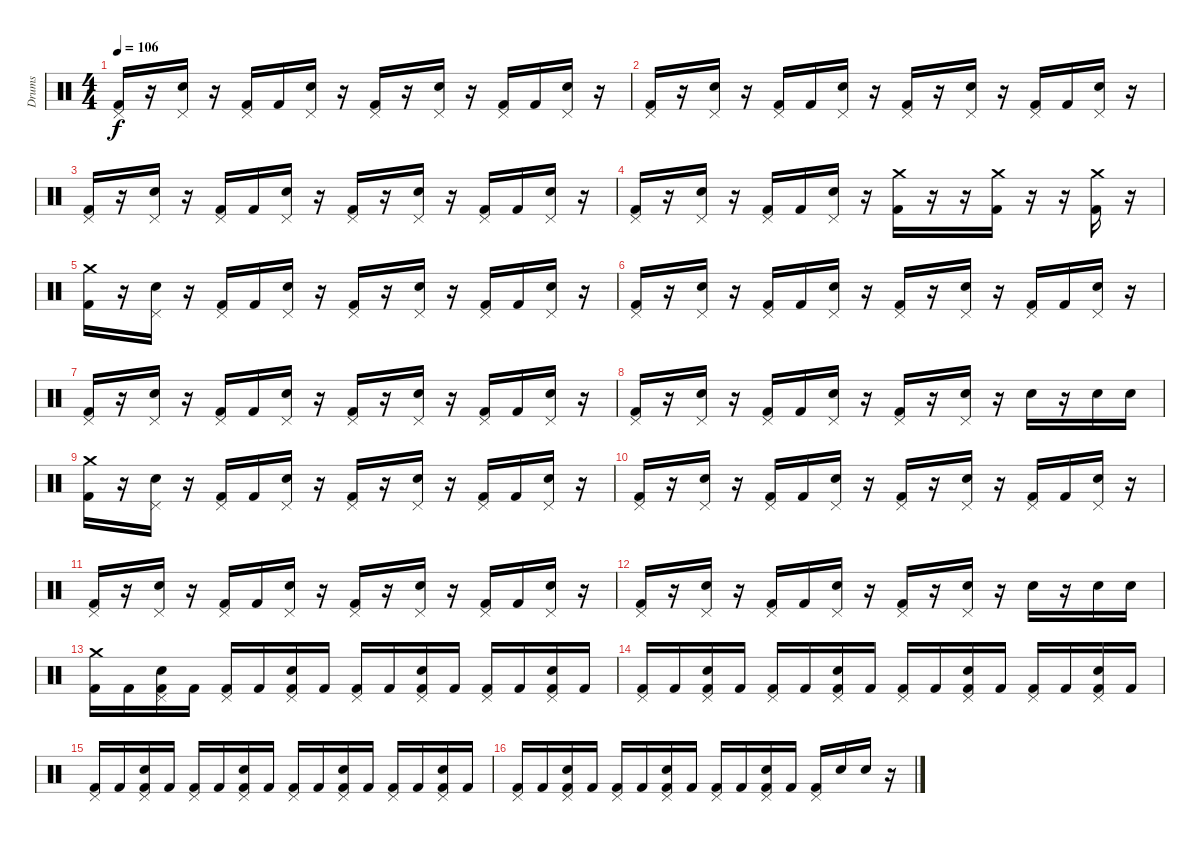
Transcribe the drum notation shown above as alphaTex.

\track ("Drums" "Drums") {instrument percussion}
\staff {score}
\articulation defaults
\ts (4 4)
\tempo 106
\clef neutral
\ks c
("Kick (hit) 2" "Pedal Hi-Hat (hit)").16{dy f} r.16 ("Pedal Hi-Hat (hit)" "Electric Snare (hit)").16 r.16 ("Kick (hit) 2" "Pedal Hi-Hat (hit)").16 "Kick (hit) 2".16 ("Pedal Hi-Hat (hit)" "Electric Snare (hit)").16 r.16 ("Kick (hit) 2" "Pedal Hi-Hat (hit)").16 r.16 ("Pedal Hi-Hat (hit)" "Electric Snare (hit)").16 r.16 ("Kick (hit) 2" "Pedal Hi-Hat (hit)").16 "Kick (hit) 2".16 ("Pedal Hi-Hat (hit)" "Electric Snare (hit)").16 r.16 |
("Kick (hit) 2" "Pedal Hi-Hat (hit)").16 r.16 ("Pedal Hi-Hat (hit)" "Electric Snare (hit)").16 r.16 ("Kick (hit) 2" "Pedal Hi-Hat (hit)").16 "Kick (hit) 2".16 ("Pedal Hi-Hat (hit)" "Electric Snare (hit)").16 r.16 ("Kick (hit) 2" "Pedal Hi-Hat (hit)").16 r.16 ("Pedal Hi-Hat (hit)" "Electric Snare (hit)").16 r.16 ("Kick (hit) 2" "Pedal Hi-Hat (hit)").16 "Kick (hit) 2".16 ("Pedal Hi-Hat (hit)" "Electric Snare (hit)").16 r.16 |
("Kick (hit) 2" "Pedal Hi-Hat (hit)").16 r.16 ("Pedal Hi-Hat (hit)" "Electric Snare (hit)").16 r.16 ("Kick (hit) 2" "Pedal Hi-Hat (hit)").16 "Kick (hit) 2".16 ("Pedal Hi-Hat (hit)" "Electric Snare (hit)").16 r.16 ("Kick (hit) 2" "Pedal Hi-Hat (hit)").16 r.16 ("Pedal Hi-Hat (hit)" "Electric Snare (hit)").16 r.16 ("Kick (hit) 2" "Pedal Hi-Hat (hit)").16 "Kick (hit) 2".16 ("Pedal Hi-Hat (hit)" "Electric Snare (hit)").16 r.16 |
("Kick (hit) 2" "Pedal Hi-Hat (hit)").16 r.16 ("Pedal Hi-Hat (hit)" "Electric Snare (hit)").16 r.16 ("Kick (hit) 2" "Pedal Hi-Hat (hit)").16 "Kick (hit) 2".16 ("Pedal Hi-Hat (hit)" "Electric Snare (hit)").16 r.16 ("Kick (hit) 2" "Crash medium (hit)").16 r.16 r.16 ("Kick (hit) 2" "Crash medium (hit)").16 r.16 r.16 ("Kick (hit) 2" "Crash medium (hit)").16 r.16 |
("Kick (hit) 2" "Crash medium (hit)").16 r.16 ("Pedal Hi-Hat (hit)" "Electric Snare (hit)").16 r.16 ("Kick (hit) 2" "Pedal Hi-Hat (hit)").16 "Kick (hit) 2".16 ("Pedal Hi-Hat (hit)" "Electric Snare (hit)").16 r.16 ("Kick (hit) 2" "Pedal Hi-Hat (hit)").16 r.16 ("Pedal Hi-Hat (hit)" "Electric Snare (hit)").16 r.16 ("Kick (hit) 2" "Pedal Hi-Hat (hit)").16 "Kick (hit) 2".16 ("Pedal Hi-Hat (hit)" "Electric Snare (hit)").16 r.16 |
("Kick (hit) 2" "Pedal Hi-Hat (hit)").16 r.16 ("Pedal Hi-Hat (hit)" "Electric Snare (hit)").16 r.16 ("Kick (hit) 2" "Pedal Hi-Hat (hit)").16 "Kick (hit) 2".16 ("Pedal Hi-Hat (hit)" "Electric Snare (hit)").16 r.16 ("Kick (hit) 2" "Pedal Hi-Hat (hit)").16 r.16 ("Pedal Hi-Hat (hit)" "Electric Snare (hit)").16 r.16 ("Kick (hit) 2" "Pedal Hi-Hat (hit)").16 "Kick (hit) 2".16 ("Pedal Hi-Hat (hit)" "Electric Snare (hit)").16 r.16 |
("Kick (hit) 2" "Pedal Hi-Hat (hit)").16 r.16 ("Pedal Hi-Hat (hit)" "Electric Snare (hit)").16 r.16 ("Kick (hit) 2" "Pedal Hi-Hat (hit)").16 "Kick (hit) 2".16 ("Pedal Hi-Hat (hit)" "Electric Snare (hit)").16 r.16 ("Kick (hit) 2" "Pedal Hi-Hat (hit)").16 r.16 ("Pedal Hi-Hat (hit)" "Electric Snare (hit)").16 r.16 ("Kick (hit) 2" "Pedal Hi-Hat (hit)").16 "Kick (hit) 2".16 ("Pedal Hi-Hat (hit)" "Electric Snare (hit)").16 r.16 |
("Kick (hit) 2" "Pedal Hi-Hat (hit)").16 r.16 ("Pedal Hi-Hat (hit)" "Electric Snare (hit)").16 r.16 ("Kick (hit) 2" "Pedal Hi-Hat (hit)").16 "Kick (hit) 2".16 ("Pedal Hi-Hat (hit)" "Electric Snare (hit)").16 r.16 ("Kick (hit) 2" "Pedal Hi-Hat (hit)").16 r.16 ("Pedal Hi-Hat (hit)" "Electric Snare (hit)").16 r.16 "Electric Snare (hit)".16 r.16 "Electric Snare (hit)".16 "Electric Snare (hit)".16 |
("Kick (hit) 2" "Crash medium (hit)").16 r.16 ("Pedal Hi-Hat (hit)" "Electric Snare (hit)").16 r.16 ("Kick (hit) 2" "Pedal Hi-Hat (hit)").16 "Kick (hit) 2".16 ("Pedal Hi-Hat (hit)" "Electric Snare (hit)").16 r.16 ("Kick (hit) 2" "Pedal Hi-Hat (hit)").16 r.16 ("Pedal Hi-Hat (hit)" "Electric Snare (hit)").16 r.16 ("Kick (hit) 2" "Pedal Hi-Hat (hit)").16 "Kick (hit) 2".16 ("Pedal Hi-Hat (hit)" "Electric Snare (hit)").16 r.16 |
("Kick (hit) 2" "Pedal Hi-Hat (hit)").16 r.16 ("Pedal Hi-Hat (hit)" "Electric Snare (hit)").16 r.16 ("Kick (hit) 2" "Pedal Hi-Hat (hit)").16 "Kick (hit) 2".16 ("Pedal Hi-Hat (hit)" "Electric Snare (hit)").16 r.16 ("Kick (hit) 2" "Pedal Hi-Hat (hit)").16 r.16 ("Pedal Hi-Hat (hit)" "Electric Snare (hit)").16 r.16 ("Kick (hit) 2" "Pedal Hi-Hat (hit)").16 "Kick (hit) 2".16 ("Pedal Hi-Hat (hit)" "Electric Snare (hit)").16 r.16 |
("Kick (hit) 2" "Pedal Hi-Hat (hit)").16 r.16 ("Pedal Hi-Hat (hit)" "Electric Snare (hit)").16 r.16 ("Kick (hit) 2" "Pedal Hi-Hat (hit)").16 "Kick (hit) 2".16 ("Pedal Hi-Hat (hit)" "Electric Snare (hit)").16 r.16 ("Kick (hit) 2" "Pedal Hi-Hat (hit)").16 r.16 ("Pedal Hi-Hat (hit)" "Electric Snare (hit)").16 r.16 ("Kick (hit) 2" "Pedal Hi-Hat (hit)").16 "Kick (hit) 2".16 ("Pedal Hi-Hat (hit)" "Electric Snare (hit)").16 r.16 |
("Kick (hit) 2" "Pedal Hi-Hat (hit)").16 r.16 ("Pedal Hi-Hat (hit)" "Electric Snare (hit)").16 r.16 ("Kick (hit) 2" "Pedal Hi-Hat (hit)").16 "Kick (hit) 2".16 ("Pedal Hi-Hat (hit)" "Electric Snare (hit)").16 r.16 ("Kick (hit) 2" "Pedal Hi-Hat (hit)").16 r.16 ("Pedal Hi-Hat (hit)" "Electric Snare (hit)").16 r.16 "Electric Snare (hit)".16 r.16 "Electric Snare (hit)".16 "Electric Snare (hit)".16 |
("Kick (hit) 2" "Crash medium (hit)").16 "Kick (hit) 2".16 ("Kick (hit) 2" "Pedal Hi-Hat (hit)" "Electric Snare (hit)").16 "Kick (hit) 2".16 ("Kick (hit) 2" "Pedal Hi-Hat (hit)").16 "Kick (hit) 2".16 ("Kick (hit) 2" "Pedal Hi-Hat (hit)" "Electric Snare (hit)").16 "Kick (hit) 2".16 ("Kick (hit) 2" "Pedal Hi-Hat (hit)").16 "Kick (hit) 2".16 ("Kick (hit) 2" "Pedal Hi-Hat (hit)" "Electric Snare (hit)").16 "Kick (hit) 2".16 ("Kick (hit) 2" "Pedal Hi-Hat (hit)").16 "Kick (hit) 2".16 ("Kick (hit) 2" "Pedal Hi-Hat (hit)" "Electric Snare (hit)").16 "Kick (hit) 2".16 |
("Kick (hit) 2" "Pedal Hi-Hat (hit)").16 "Kick (hit) 2".16 ("Kick (hit) 2" "Pedal Hi-Hat (hit)" "Electric Snare (hit)").16 "Kick (hit) 2".16 ("Kick (hit) 2" "Pedal Hi-Hat (hit)").16 "Kick (hit) 2".16 ("Kick (hit) 2" "Pedal Hi-Hat (hit)" "Electric Snare (hit)").16 "Kick (hit) 2".16 ("Kick (hit) 2" "Pedal Hi-Hat (hit)").16 "Kick (hit) 2".16 ("Kick (hit) 2" "Pedal Hi-Hat (hit)" "Electric Snare (hit)").16 "Kick (hit) 2".16 ("Kick (hit) 2" "Pedal Hi-Hat (hit)").16 "Kick (hit) 2".16 ("Kick (hit) 2" "Pedal Hi-Hat (hit)" "Electric Snare (hit)").16 "Kick (hit) 2".16 |
("Kick (hit) 2" "Pedal Hi-Hat (hit)").16 "Kick (hit) 2".16 ("Kick (hit) 2" "Pedal Hi-Hat (hit)" "Electric Snare (hit)").16 "Kick (hit) 2".16 ("Kick (hit) 2" "Pedal Hi-Hat (hit)").16 "Kick (hit) 2".16 ("Kick (hit) 2" "Pedal Hi-Hat (hit)" "Electric Snare (hit)").16 "Kick (hit) 2".16 ("Kick (hit) 2" "Pedal Hi-Hat (hit)").16 "Kick (hit) 2".16 ("Kick (hit) 2" "Pedal Hi-Hat (hit)" "Electric Snare (hit)").16 "Kick (hit) 2".16 ("Kick (hit) 2" "Pedal Hi-Hat (hit)").16 "Kick (hit) 2".16 ("Kick (hit) 2" "Pedal Hi-Hat (hit)" "Electric Snare (hit)").16 "Kick (hit) 2".16 |
("Kick (hit) 2" "Pedal Hi-Hat (hit)").16 "Kick (hit) 2".16 ("Kick (hit) 2" "Pedal Hi-Hat (hit)" "Electric Snare (hit)").16 "Kick (hit) 2".16 ("Kick (hit) 2" "Pedal Hi-Hat (hit)").16 "Kick (hit) 2".16 ("Kick (hit) 2" "Pedal Hi-Hat (hit)" "Electric Snare (hit)").16 "Kick (hit) 2".16 ("Kick (hit) 2" "Pedal Hi-Hat (hit)").16 "Kick (hit) 2".16 ("Kick (hit) 2" "Pedal Hi-Hat (hit)" "Electric Snare (hit)").16 "Kick (hit) 2".16 ("Kick (hit) 2" "Pedal Hi-Hat (hit)").16 "Electric Snare (hit)".16 "Electric Snare (hit)".16 r.16
